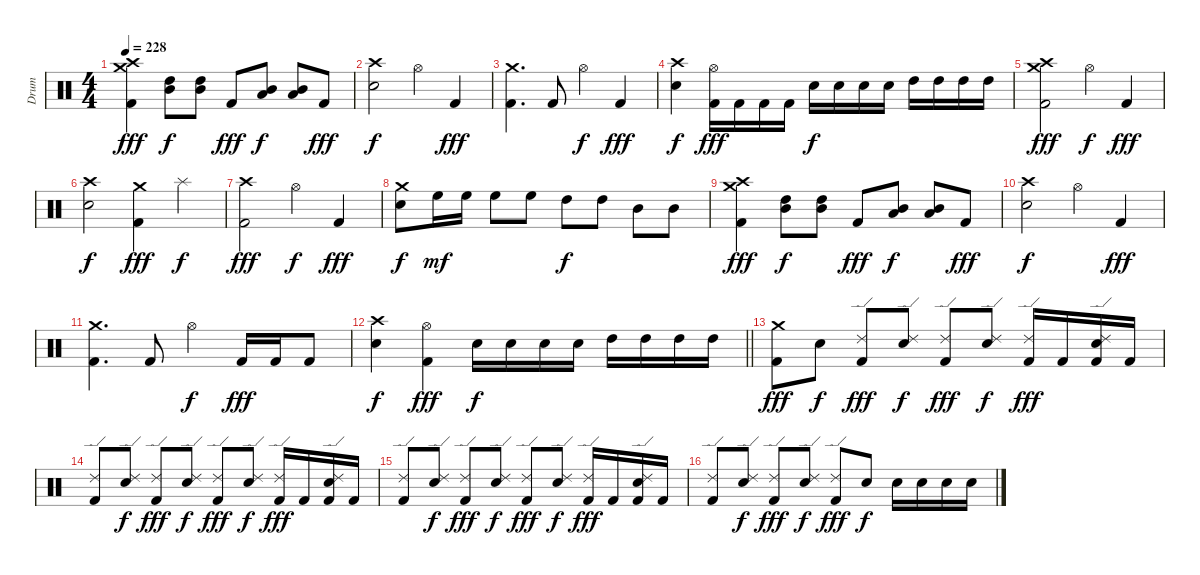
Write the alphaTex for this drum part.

\track ("Drum" "Drum") {instrument percussion}
\staff {score}
\articulation defaults
\ts (4 4)
\tempo 228
\clef neutral
\ks c
("Crash medium (hit)" "Crash high (hit)" "Kick (hit) 2").4{dy fff} ("High Tom (hit)" "Mid Tom (hit)").8{dy f} ("High Tom (hit)" "Mid Tom (hit)").8 "Kick (hit) 2".8{dy fff} ("Mid Tom (hit)" "Low Tom (hit)").8{dy f} ("Mid Tom (hit)" "Low Tom (hit)").8 "Kick (hit) 2".8{dy fff} |
("Crash high (hit)" "Snare (hit) 2").2{dy f} "Hi-Hat (open)".4 "Kick (hit) 2".4{dy fff} |
("Crash medium (hit)" "Kick (hit) 2").4{d} "Kick (hit) 2".8 "Hi-Hat (open)".4{dy f} "Kick (hit) 2".4{dy fff} |
("Crash high (hit)" "Snare (hit) 2").4{dy f} ("Hi-Hat (open)" "Kick (hit) 2").16{dy fff} "Kick (hit) 2".16 "Kick (hit) 2".16 "Kick (hit) 2".16 "Snare (hit) 2".16{dy f} "Snare (hit) 2".16 "Snare (hit) 2".16 "Snare (hit) 2".16 "High Tom (hit)".16 "High Tom (hit)".16 "High Tom (hit)".16 "High Tom (hit)".16 |
("Crash medium (hit)" "Crash high (hit)" "Kick (hit) 2").2{dy fff} "Hi-Hat (open)".4{dy f} "Kick (hit) 2".4{dy fff} |
("Crash high (hit)" "Snare (hit) 2").2{dy f} ("Crash medium (hit)" "Kick (hit) 2").4{dy fff} "Splash (hit)".4{dy f} |
("Crash high (hit)" "Kick (hit) 2").2{dy fff} "Hi-Hat (open)".4{dy f} "Kick (hit) 2".4{dy fff} |
("Crash medium (hit)" "Snare (hit) 2").8{dy f} "High Floor Tom (hit)".16{dy mf} "High Floor Tom (hit)".16 "High Floor Tom (hit)".8 "High Floor Tom (hit)".8 "High Tom (hit)".8{dy f} "High Tom (hit)".8 "Mid Tom (hit)".8 "Mid Tom (hit)".8 |
("Crash medium (hit)" "Crash high (hit)" "Kick (hit) 2").4{dy fff} ("High Tom (hit)" "Mid Tom (hit)").8{dy f} ("High Tom (hit)" "Mid Tom (hit)").8 "Kick (hit) 2".8{dy fff} ("Mid Tom (hit)" "Low Tom (hit)").8{dy f} ("Mid Tom (hit)" "Low Tom (hit)").8 "Kick (hit) 2".8{dy fff} |
("Crash high (hit)" "Snare (hit) 2").2{dy f} "Hi-Hat (open)".4 "Kick (hit) 2".4{dy fff} |
("Crash medium (hit)" "Kick (hit) 2").4{d} "Kick (hit) 2".8 "Hi-Hat (open)".4{dy f} "Kick (hit) 2".16{dy fff} "Kick (hit) 2".16 "Kick (hit) 2".8 |
\barLineRight lightlight
("Crash high (hit)" "Snare (hit) 2").4{dy f} ("Hi-Hat (open)" "Kick (hit) 2").4{dy fff} "Snare (hit) 2".16{dy f} "Snare (hit) 2".16 "Snare (hit) 2".16 "Snare (hit) 2".16 "High Tom (hit)".16 "High Tom (hit)".16 "High Tom (hit)".16 "High Tom (hit)".16 |
("Crash medium (hit)" "Kick (hit) 2").8{dy fff} "Snare (hit) 2".8{dy f} ("Ride (edge) 2" "Kick (hit) 2").8{dy fff} ("Ride (edge) 2" "Snare (hit) 2").8{dy f} ("Ride (edge) 2" "Kick (hit) 2").8{dy fff} ("Ride (edge) 2" "Snare (hit) 2").8{dy f} ("Ride (edge) 2" "Kick (hit) 2").16{dy fff} "Kick (hit) 2".16 ("Ride (edge) 2" "Snare (hit) 2" "Kick (hit) 2").16 "Kick (hit) 2".16 |
("Ride (edge) 2" "Kick (hit) 2").8 ("Ride (edge) 2" "Snare (hit) 2").8{dy f} ("Ride (edge) 2" "Kick (hit) 2").8{dy fff} ("Ride (edge) 2" "Snare (hit) 2").8{dy f} ("Ride (edge) 2" "Kick (hit) 2").8{dy fff} ("Ride (edge) 2" "Snare (hit) 2").8{dy f} ("Ride (edge) 2" "Kick (hit) 2").16{dy fff} "Kick (hit) 2".16 ("Ride (edge) 2" "Snare (hit) 2" "Kick (hit) 2").16 "Kick (hit) 2".16 |
("Ride (edge) 2" "Kick (hit) 2").8 ("Ride (edge) 2" "Snare (hit) 2").8{dy f} ("Ride (edge) 2" "Kick (hit) 2").8{dy fff} ("Ride (edge) 2" "Snare (hit) 2").8{dy f} ("Ride (edge) 2" "Kick (hit) 2").8{dy fff} ("Ride (edge) 2" "Snare (hit) 2").8{dy f} ("Ride (edge) 2" "Kick (hit) 2").16{dy fff} "Kick (hit) 2".16 ("Ride (edge) 2" "Snare (hit) 2" "Kick (hit) 2").16 "Kick (hit) 2".16 |
("Ride (edge) 2" "Kick (hit) 2").8 ("Ride (edge) 2" "Snare (hit) 2").8{dy f} ("Ride (edge) 2" "Kick (hit) 2").8{dy fff} ("Ride (edge) 2" "Snare (hit) 2").8{dy f} ("Ride (edge) 2" "Kick (hit) 2").8{dy fff} "Snare (hit) 2".8{dy f} "Snare (hit) 2".16 "Snare (hit) 2".16 "Snare (hit) 2".16 "Snare (hit) 2".16
